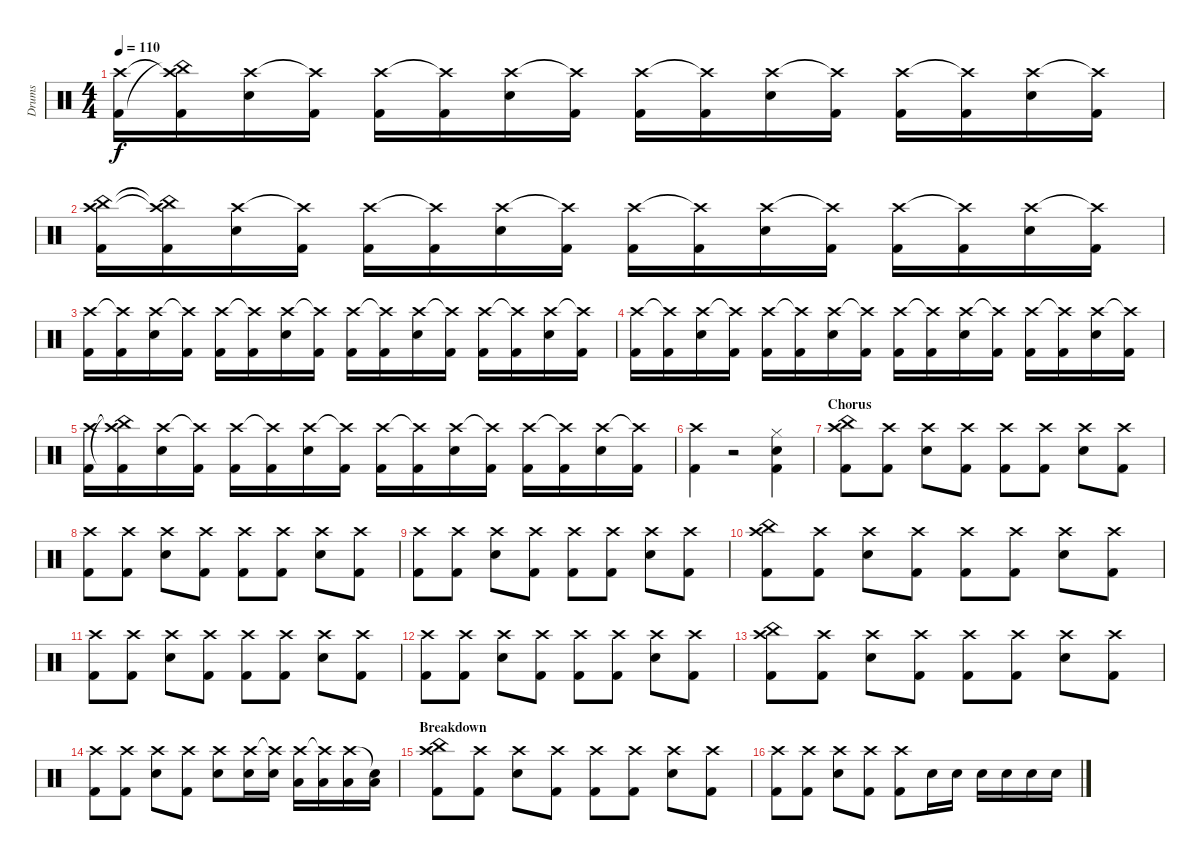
\track ("Drums" "Drums") {instrument percussion}
\staff {score}
\articulation defaults
\ts (4 4)
\tempo 110
\clef neutral
\ks c
("Crash high (hit)" "Kick (hit) 2").16{dy f} ("Crash high (hit)"{t} "China (hit)"{t} "Kick (hit) 2").16 ("Crash high (hit)" "Snare (hit) 2").16 ("Crash high (hit)"{t} "Kick (hit) 2").16 ("Crash high (hit)" "Kick (hit) 2").16 ("Crash high (hit)"{t} "Kick (hit) 2").16 ("Crash high (hit)" "Snare (hit) 2").16 ("Crash high (hit)"{t} "Kick (hit) 2").16 ("Crash high (hit)" "Kick (hit) 2").16 ("Crash high (hit)"{t} "Kick (hit) 2").16 ("Crash high (hit)" "Snare (hit) 2").16 ("Crash high (hit)"{t} "Kick (hit) 2").16 ("Crash high (hit)" "Kick (hit) 2").16 ("Crash high (hit)"{t} "Kick (hit) 2").16 ("Crash high (hit)" "Snare (hit) 2").16 ("Crash high (hit)"{t} "Kick (hit) 2").16 |
("Crash high (hit)" "China (hit)" "Kick (hit) 2").16 ("Crash high (hit)"{t} "China (hit)"{t} "Kick (hit) 2").16 ("Crash high (hit)" "Snare (hit) 2").16 ("Crash high (hit)"{t} "Kick (hit) 2").16 ("Crash high (hit)" "Kick (hit) 2").16 ("Crash high (hit)"{t} "Kick (hit) 2").16 ("Crash high (hit)" "Snare (hit) 2").16 ("Crash high (hit)"{t} "Kick (hit) 2").16 ("Crash high (hit)" "Kick (hit) 2").16 ("Crash high (hit)"{t} "Kick (hit) 2").16 ("Crash high (hit)" "Snare (hit) 2").16 ("Crash high (hit)"{t} "Kick (hit) 2").16 ("Crash high (hit)" "Kick (hit) 2").16 ("Crash high (hit)"{t} "Kick (hit) 2").16 ("Crash high (hit)" "Snare (hit) 2").16 ("Crash high (hit)"{t} "Kick (hit) 2").16 |
("Crash high (hit)" "Kick (hit) 2").16 ("Crash high (hit)"{t} "Kick (hit) 2").16 ("Crash high (hit)" "Snare (hit) 2").16 ("Crash high (hit)"{t} "Kick (hit) 2").16 ("Crash high (hit)" "Kick (hit) 2").16 ("Crash high (hit)"{t} "Kick (hit) 2").16 ("Crash high (hit)" "Snare (hit) 2").16 ("Crash high (hit)"{t} "Kick (hit) 2").16 ("Crash high (hit)" "Kick (hit) 2").16 ("Crash high (hit)"{t} "Kick (hit) 2").16 ("Crash high (hit)" "Snare (hit) 2").16 ("Crash high (hit)"{t} "Kick (hit) 2").16 ("Crash high (hit)" "Kick (hit) 2").16 ("Crash high (hit)"{t} "Kick (hit) 2").16 ("Crash high (hit)" "Snare (hit) 2").16 ("Crash high (hit)"{t} "Kick (hit) 2").16 |
("Crash high (hit)" "Kick (hit) 2").16 ("Crash high (hit)"{t} "Kick (hit) 2").16 ("Crash high (hit)" "Snare (hit) 2").16 ("Crash high (hit)"{t} "Kick (hit) 2").16 ("Crash high (hit)" "Kick (hit) 2").16 ("Crash high (hit)"{t} "Kick (hit) 2").16 ("Crash high (hit)" "Snare (hit) 2").16 ("Crash high (hit)"{t} "Kick (hit) 2").16 ("Crash high (hit)" "Kick (hit) 2").16 ("Crash high (hit)"{t} "Kick (hit) 2").16 ("Crash high (hit)" "Snare (hit) 2").16 ("Crash high (hit)"{t} "Kick (hit) 2").16 ("Crash high (hit)" "Kick (hit) 2").16 ("Crash high (hit)"{t} "Kick (hit) 2").16 ("Crash high (hit)" "Snare (hit) 2").16 ("Crash high (hit)"{t} "Kick (hit) 2").16 |
("Crash high (hit)" "Kick (hit) 2").16 ("Crash high (hit)"{t} "China (hit)"{t} "Kick (hit) 2").16 ("Crash high (hit)" "Snare (hit) 2").16 ("Crash high (hit)"{t} "Kick (hit) 2").16 ("Crash high (hit)" "Kick (hit) 2").16 ("Crash high (hit)"{t} "Kick (hit) 2").16 ("Crash high (hit)" "Snare (hit) 2").16 ("Crash high (hit)"{t} "Kick (hit) 2").16 ("Crash high (hit)" "Kick (hit) 2").16 ("Crash high (hit)"{t} "Kick (hit) 2").16 ("Crash high (hit)" "Snare (hit) 2").16 ("Crash high (hit)"{t} "Kick (hit) 2").16 ("Crash high (hit)" "Kick (hit) 2").16 ("Crash high (hit)"{t} "Kick (hit) 2").16 ("Crash high (hit)" "Snare (hit) 2").16 ("Crash high (hit)"{t} "Kick (hit) 2").16 |
("Crash high (hit)" "Kick (hit) 2").4 r.2 ("Hi-Hat (closed)" "Snare (hit) 2" "Kick (hit) 2").4 |
\section ("" "Chorus")
("Crash high (hit)" "China (hit)" "Kick (hit) 2").8 ("Crash high (hit)" "Kick (hit) 2").8 ("Crash high (hit)" "Snare (hit) 2").8 ("Crash high (hit)" "Kick (hit) 2").8 ("Crash high (hit)" "Kick (hit) 2").8 ("Crash high (hit)" "Kick (hit) 2").8 ("Crash high (hit)" "Snare (hit) 2").8 ("Crash high (hit)" "Kick (hit) 2").8 |
("Crash high (hit)" "Kick (hit) 2").8 ("Crash high (hit)" "Kick (hit) 2").8 ("Crash high (hit)" "Snare (hit) 2").8 ("Crash high (hit)" "Kick (hit) 2").8 ("Crash high (hit)" "Kick (hit) 2").8 ("Crash high (hit)" "Kick (hit) 2").8 ("Crash high (hit)" "Snare (hit) 2").8 ("Crash high (hit)" "Kick (hit) 2").8 |
("Crash high (hit)" "Kick (hit) 2").8 ("Crash high (hit)" "Kick (hit) 2").8 ("Crash high (hit)" "Snare (hit) 2").8 ("Crash high (hit)" "Kick (hit) 2").8 ("Crash high (hit)" "Kick (hit) 2").8 ("Crash high (hit)" "Kick (hit) 2").8 ("Crash high (hit)" "Snare (hit) 2").8 ("Crash high (hit)" "Kick (hit) 2").8 |
("Crash high (hit)" "China (hit)" "Kick (hit) 2").8 ("Crash high (hit)" "Kick (hit) 2").8 ("Crash high (hit)" "Snare (hit) 2").8 ("Crash high (hit)" "Kick (hit) 2").8 ("Crash high (hit)" "Kick (hit) 2").8 ("Crash high (hit)" "Kick (hit) 2").8 ("Crash high (hit)" "Snare (hit) 2").8 ("Crash high (hit)" "Kick (hit) 2").8 |
("Crash high (hit)" "Kick (hit) 2").8 ("Crash high (hit)" "Kick (hit) 2").8 ("Crash high (hit)" "Snare (hit) 2").8 ("Crash high (hit)" "Kick (hit) 2").8 ("Crash high (hit)" "Kick (hit) 2").8 ("Crash high (hit)" "Kick (hit) 2").8 ("Crash high (hit)" "Snare (hit) 2").8 ("Crash high (hit)" "Kick (hit) 2").8 |
("Crash high (hit)" "Kick (hit) 2").8 ("Crash high (hit)" "Kick (hit) 2").8 ("Crash high (hit)" "Snare (hit) 2").8 ("Crash high (hit)" "Kick (hit) 2").8 ("Crash high (hit)" "Kick (hit) 2").8 ("Crash high (hit)" "Kick (hit) 2").8 ("Crash high (hit)" "Snare (hit) 2").8 ("Crash high (hit)" "Kick (hit) 2").8 |
("Crash high (hit)" "China (hit)" "Kick (hit) 2").8 ("Crash high (hit)" "Kick (hit) 2").8 ("Crash high (hit)" "Snare (hit) 2").8 ("Crash high (hit)" "Kick (hit) 2").8 ("Crash high (hit)" "Kick (hit) 2").8 ("Crash high (hit)" "Kick (hit) 2").8 ("Crash high (hit)" "Snare (hit) 2").8 ("Crash high (hit)" "Kick (hit) 2").8 |
("Crash high (hit)" "Kick (hit) 2").8 ("Crash high (hit)" "Kick (hit) 2").8 ("Crash high (hit)" "Snare (hit) 2").8 ("Crash high (hit)" "Kick (hit) 2").8 ("Crash high (hit)" "Snare (hit) 2").8 ("Crash high (hit)" "Snare (hit) 2").16 ("Crash high (hit)"{t} "Snare (hit) 2").16 ("Crash high (hit)" "Low Tom (hit)").16 ("Crash high (hit)"{t} "Low Tom (hit)").16 ("Crash high (hit)" "Low Floor Tom (hit)").16 ("Snare (hit)"{t} "Low Floor Tom (hit)").16 |
\section ("" "Breakdown")
("Crash high (hit)" "China (hit)" "Kick (hit) 2").8 ("Crash high (hit)" "Kick (hit) 2").8 ("Crash high (hit)" "Snare (hit) 2").8 ("Crash high (hit)" "Kick (hit) 2").8 ("Crash high (hit)" "Kick (hit) 2").8 ("Crash high (hit)" "Kick (hit) 2").8 ("Crash high (hit)" "Snare (hit) 2").8 ("Crash high (hit)" "Kick (hit) 2").8 |
("Crash high (hit)" "Kick (hit) 2").8 ("Crash high (hit)" "Kick (hit) 2").8 ("Crash high (hit)" "Snare (hit) 2").8 ("Crash high (hit)" "Kick (hit) 2").8 ("Crash high (hit)" "Kick (hit) 2").8 "Snare (hit) 2".16 "Snare (hit) 2".16 "Snare (hit) 2".16 "Snare (hit) 2".16 "Snare (hit) 2".16 "Snare (hit) 2".16
